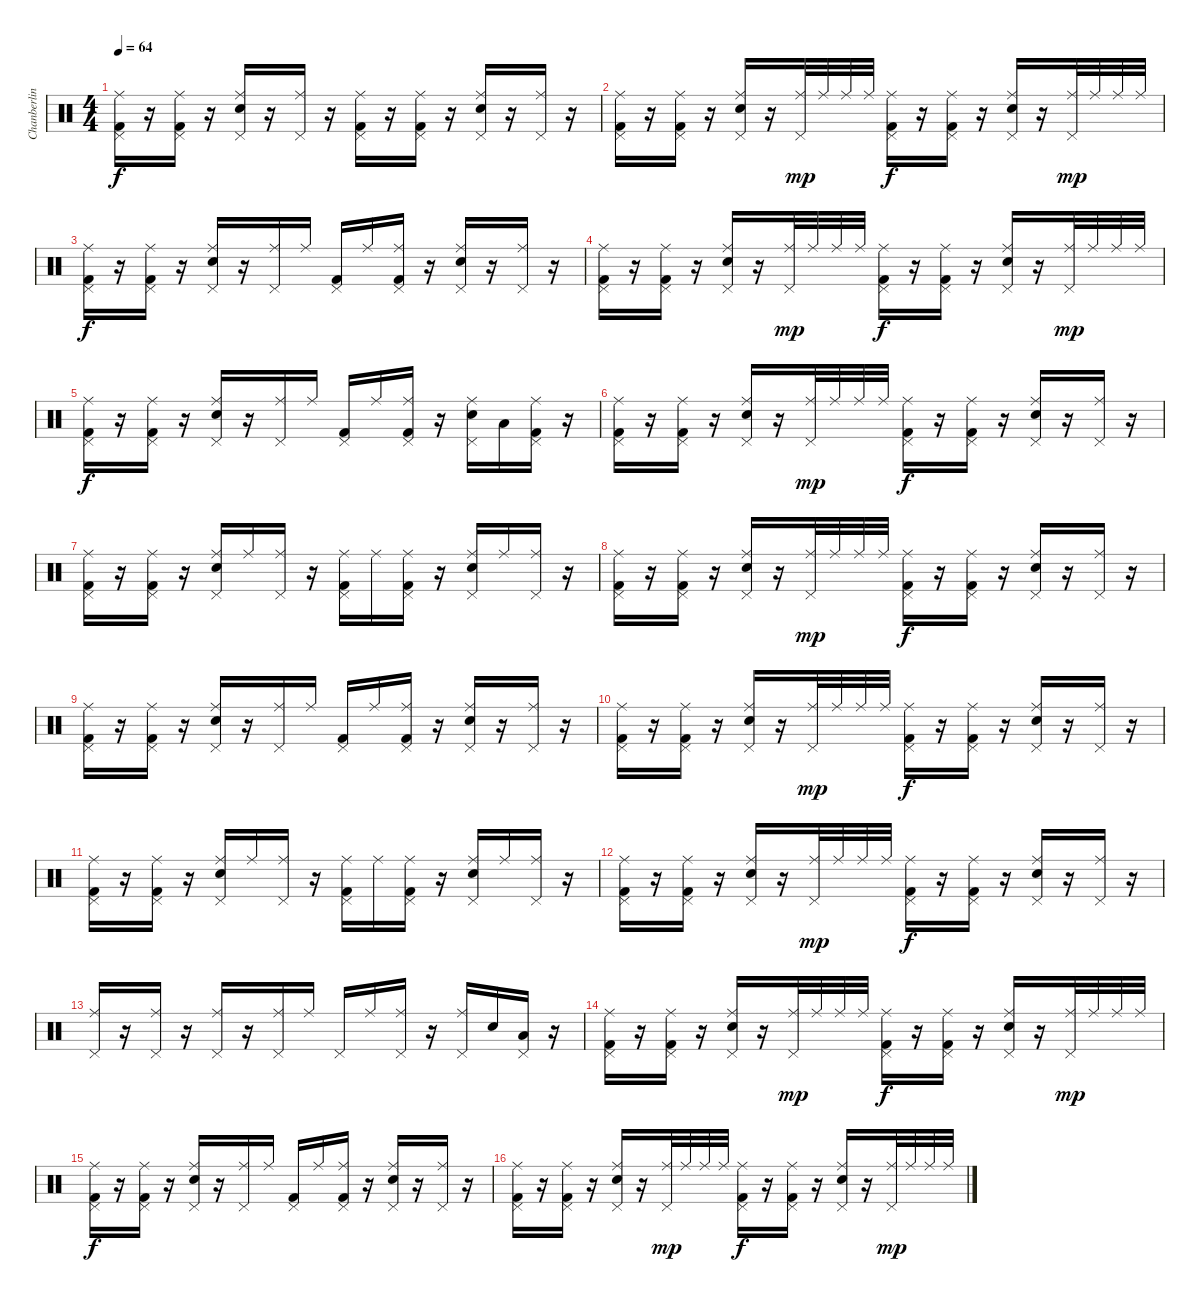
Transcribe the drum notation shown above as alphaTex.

\track ("Chanberlin" "Chanberlin") {instrument percussion}
\staff {score}
\articulation defaults
\ts (4 4)
\tempo 64
\clef neutral
\ks c
("Ride (middle)" "Pedal Hi-Hat (hit)" "Kick (hit) 2").16{dy f} r.16 ("Ride (middle)" "Pedal Hi-Hat (hit)" "Kick (hit) 2").16 r.16 ("Ride (middle)" "Pedal Hi-Hat (hit)" "Snare (hit) 2").16 r.16 ("Ride (middle)" "Pedal Hi-Hat (hit)").16 r.16 ("Ride (middle)" "Pedal Hi-Hat (hit)" "Kick (hit) 2").16 r.16 ("Ride (middle)" "Pedal Hi-Hat (hit)" "Kick (hit) 2").16 r.16 ("Ride (middle)" "Pedal Hi-Hat (hit)" "Snare (hit) 2").16 r.16 ("Ride (middle)" "Pedal Hi-Hat (hit)").16 r.16 |
("Ride (middle)" "Pedal Hi-Hat (hit)" "Kick (hit) 2").16 r.16 ("Ride (middle)" "Pedal Hi-Hat (hit)" "Kick (hit) 2").16 r.16 ("Ride (middle)" "Pedal Hi-Hat (hit)" "Snare (hit) 2").16 r.16 ("Ride (middle)" "Pedal Hi-Hat (hit)").32{dy mp} "Ride (middle)".32 "Ride (middle)".32 "Ride (middle)".32 ("Ride (middle)" "Pedal Hi-Hat (hit)" "Kick (hit) 2").16{dy f} r.16 ("Ride (middle)" "Pedal Hi-Hat (hit)" "Kick (hit) 2").16 r.16 ("Ride (middle)" "Pedal Hi-Hat (hit)" "Snare (hit) 2").16 r.16 ("Ride (middle)" "Pedal Hi-Hat (hit)").32{dy mp} "Ride (middle)".32 "Ride (middle)".32 "Ride (middle)".32 |
("Ride (middle)" "Pedal Hi-Hat (hit)" "Kick (hit) 2").16{dy f} r.16 ("Ride (middle)" "Pedal Hi-Hat (hit)" "Kick (hit) 2").16 r.16 ("Ride (middle)" "Pedal Hi-Hat (hit)" "Snare (hit) 2").16 r.16 ("Ride (middle)" "Pedal Hi-Hat (hit)").16 "Ride (middle)".16 ("Pedal Hi-Hat (hit)" "Kick (hit) 2").16 "Ride (middle)".16 ("Ride (middle)" "Pedal Hi-Hat (hit)" "Kick (hit) 2").16 r.16 ("Ride (middle)" "Pedal Hi-Hat (hit)" "Snare (hit) 2").16 r.16 ("Ride (middle)" "Pedal Hi-Hat (hit)").16 r.16 |
("Ride (middle)" "Pedal Hi-Hat (hit)" "Kick (hit) 2").16 r.16 ("Ride (middle)" "Pedal Hi-Hat (hit)" "Kick (hit) 2").16 r.16 ("Ride (middle)" "Pedal Hi-Hat (hit)" "Snare (hit) 2").16 r.16 ("Ride (middle)" "Pedal Hi-Hat (hit)").32{dy mp} "Ride (middle)".32 "Ride (middle)".32 "Ride (middle)".32 ("Ride (middle)" "Pedal Hi-Hat (hit)" "Kick (hit) 2").16{dy f} r.16 ("Ride (middle)" "Pedal Hi-Hat (hit)" "Kick (hit) 2").16 r.16 ("Ride (middle)" "Pedal Hi-Hat (hit)" "Snare (hit) 2").16 r.16 ("Ride (middle)" "Pedal Hi-Hat (hit)").32{dy mp} "Ride (middle)".32 "Ride (middle)".32 "Ride (middle)".32 |
("Ride (middle)" "Pedal Hi-Hat (hit)" "Kick (hit) 2").16{dy f} r.16 ("Ride (middle)" "Pedal Hi-Hat (hit)" "Kick (hit) 2").16 r.16 ("Ride (middle)" "Pedal Hi-Hat (hit)" "Snare (hit) 2").16 r.16 ("Ride (middle)" "Pedal Hi-Hat (hit)").16 "Ride (middle)".16 ("Pedal Hi-Hat (hit)" "Kick (hit) 2").16 "Ride (middle)".16 ("Ride (middle)" "Pedal Hi-Hat (hit)" "Kick (hit) 2").16 r.16 ("Ride (middle)" "Pedal Hi-Hat (hit)" "Snare (hit) 2").16 "Low Tom (hit)".16 ("Ride (middle)" "Pedal Hi-Hat (hit)" "Kick (hit) 2").16 r.16 |
("Ride (middle)" "Pedal Hi-Hat (hit)" "Kick (hit) 2").16 r.16 ("Ride (middle)" "Pedal Hi-Hat (hit)" "Kick (hit) 2").16 r.16 ("Ride (middle)" "Pedal Hi-Hat (hit)" "Snare (hit) 2").16 r.16 ("Ride (middle)" "Pedal Hi-Hat (hit)").32{dy mp} "Ride (middle)".32 "Ride (middle)".32 "Ride (middle)".32 ("Ride (middle)" "Pedal Hi-Hat (hit)" "Kick (hit) 2").16{dy f} r.16 ("Ride (middle)" "Pedal Hi-Hat (hit)" "Kick (hit) 2").16 r.16 ("Ride (middle)" "Pedal Hi-Hat (hit)" "Snare (hit) 2").16 r.16 ("Ride (middle)" "Pedal Hi-Hat (hit)").16 r.16 |
("Ride (middle)" "Pedal Hi-Hat (hit)" "Kick (hit) 2").16 r.16 ("Ride (middle)" "Pedal Hi-Hat (hit)" "Kick (hit) 2").16 r.16 ("Ride (middle)" "Pedal Hi-Hat (hit)" "Snare (hit) 2").16 "Ride (middle)".16 ("Ride (middle)" "Pedal Hi-Hat (hit)").16 r.16 ("Ride (middle)" "Pedal Hi-Hat (hit)" "Kick (hit) 2").16 "Ride (middle)".16 ("Ride (middle)" "Pedal Hi-Hat (hit)" "Kick (hit) 2").16 r.16 ("Ride (middle)" "Pedal Hi-Hat (hit)" "Snare (hit) 2").16 "Ride (middle)".16 ("Ride (middle)" "Pedal Hi-Hat (hit)").16 r.16 |
("Ride (middle)" "Pedal Hi-Hat (hit)" "Kick (hit) 2").16 r.16 ("Ride (middle)" "Pedal Hi-Hat (hit)" "Kick (hit) 2").16 r.16 ("Ride (middle)" "Pedal Hi-Hat (hit)" "Snare (hit) 2").16 r.16 ("Ride (middle)" "Pedal Hi-Hat (hit)").32{dy mp} "Ride (middle)".32 "Ride (middle)".32 "Ride (middle)".32 ("Ride (middle)" "Pedal Hi-Hat (hit)" "Kick (hit) 2").16{dy f} r.16 ("Ride (middle)" "Pedal Hi-Hat (hit)" "Kick (hit) 2").16 r.16 ("Ride (middle)" "Pedal Hi-Hat (hit)" "Snare (hit) 2").16 r.16 ("Ride (middle)" "Pedal Hi-Hat (hit)").16 r.16 |
("Ride (middle)" "Pedal Hi-Hat (hit)" "Kick (hit) 2").16 r.16 ("Ride (middle)" "Pedal Hi-Hat (hit)" "Kick (hit) 2").16 r.16 ("Ride (middle)" "Pedal Hi-Hat (hit)" "Snare (hit) 2").16 r.16 ("Ride (middle)" "Pedal Hi-Hat (hit)").16 "Ride (middle)".16 ("Pedal Hi-Hat (hit)" "Kick (hit) 2").16 "Ride (middle)".16 ("Ride (middle)" "Pedal Hi-Hat (hit)" "Kick (hit) 2").16 r.16 ("Ride (middle)" "Pedal Hi-Hat (hit)" "Snare (hit) 2").16 r.16 ("Ride (middle)" "Pedal Hi-Hat (hit)").16 r.16 |
("Ride (middle)" "Pedal Hi-Hat (hit)" "Kick (hit) 2").16 r.16 ("Ride (middle)" "Pedal Hi-Hat (hit)" "Kick (hit) 2").16 r.16 ("Ride (middle)" "Pedal Hi-Hat (hit)" "Snare (hit) 2").16 r.16 ("Ride (middle)" "Pedal Hi-Hat (hit)").32{dy mp} "Ride (middle)".32 "Ride (middle)".32 "Ride (middle)".32 ("Ride (middle)" "Pedal Hi-Hat (hit)" "Kick (hit) 2").16{dy f} r.16 ("Ride (middle)" "Pedal Hi-Hat (hit)" "Kick (hit) 2").16 r.16 ("Ride (middle)" "Pedal Hi-Hat (hit)" "Snare (hit) 2").16 r.16 ("Ride (middle)" "Pedal Hi-Hat (hit)").16 r.16 |
("Ride (middle)" "Pedal Hi-Hat (hit)" "Kick (hit) 2").16 r.16 ("Ride (middle)" "Pedal Hi-Hat (hit)" "Kick (hit) 2").16 r.16 ("Ride (middle)" "Pedal Hi-Hat (hit)" "Snare (hit) 2").16 "Ride (middle)".16 ("Ride (middle)" "Pedal Hi-Hat (hit)").16 r.16 ("Ride (middle)" "Pedal Hi-Hat (hit)" "Kick (hit) 2").16 "Ride (middle)".16 ("Ride (middle)" "Pedal Hi-Hat (hit)" "Kick (hit) 2").16 r.16 ("Ride (middle)" "Pedal Hi-Hat (hit)" "Snare (hit) 2").16 "Ride (middle)".16 ("Ride (middle)" "Pedal Hi-Hat (hit)").16 r.16 |
("Ride (middle)" "Pedal Hi-Hat (hit)" "Kick (hit) 2").16 r.16 ("Ride (middle)" "Pedal Hi-Hat (hit)" "Kick (hit) 2").16 r.16 ("Ride (middle)" "Pedal Hi-Hat (hit)" "Snare (hit) 2").16 r.16 ("Ride (middle)" "Pedal Hi-Hat (hit)").32{dy mp} "Ride (middle)".32 "Ride (middle)".32 "Ride (middle)".32 ("Ride (middle)" "Pedal Hi-Hat (hit)" "Kick (hit) 2").16{dy f} r.16 ("Ride (middle)" "Pedal Hi-Hat (hit)" "Kick (hit) 2").16 r.16 ("Ride (middle)" "Pedal Hi-Hat (hit)" "Snare (hit) 2").16 r.16 ("Ride (middle)" "Pedal Hi-Hat (hit)").16 r.16 |
("Ride (middle)" "Pedal Hi-Hat (hit)").16 r.16 ("Ride (middle)" "Pedal Hi-Hat (hit)").16 r.16 ("Ride (middle)" "Pedal Hi-Hat (hit)").16 r.16 ("Ride (middle)" "Pedal Hi-Hat (hit)").16 "Ride (middle)".16 "Pedal Hi-Hat (hit)".16 "Ride (middle)".16 ("Ride (middle)" "Pedal Hi-Hat (hit)").16 r.16 ("Ride (middle)" "Pedal Hi-Hat (hit)").16 "Snare (hit) 2".16 ("Pedal Hi-Hat (hit)" "Low Tom (hit)").16 r.16 |
("Ride (middle)" "Pedal Hi-Hat (hit)" "Kick (hit) 2").16 r.16 ("Ride (middle)" "Pedal Hi-Hat (hit)" "Kick (hit) 2").16 r.16 ("Ride (middle)" "Pedal Hi-Hat (hit)" "Snare (hit) 2").16 r.16 ("Ride (middle)" "Pedal Hi-Hat (hit)").32{dy mp} "Ride (middle)".32 "Ride (middle)".32 "Ride (middle)".32 ("Ride (middle)" "Pedal Hi-Hat (hit)" "Kick (hit) 2").16{dy f} r.16 ("Ride (middle)" "Pedal Hi-Hat (hit)" "Kick (hit) 2").16 r.16 ("Ride (middle)" "Pedal Hi-Hat (hit)" "Snare (hit) 2").16 r.16 ("Ride (middle)" "Pedal Hi-Hat (hit)").32{dy mp} "Ride (middle)".32 "Ride (middle)".32 "Ride (middle)".32 |
("Ride (middle)" "Pedal Hi-Hat (hit)" "Kick (hit) 2").16{dy f} r.16 ("Ride (middle)" "Pedal Hi-Hat (hit)" "Kick (hit) 2").16 r.16 ("Ride (middle)" "Pedal Hi-Hat (hit)" "Snare (hit) 2").16 r.16 ("Ride (middle)" "Pedal Hi-Hat (hit)").16 "Ride (middle)".16 ("Pedal Hi-Hat (hit)" "Kick (hit) 2").16 "Ride (middle)".16 ("Ride (middle)" "Pedal Hi-Hat (hit)" "Kick (hit) 2").16 r.16 ("Ride (middle)" "Pedal Hi-Hat (hit)" "Snare (hit) 2").16 r.16 ("Ride (middle)" "Pedal Hi-Hat (hit)").16 r.16 |
("Ride (middle)" "Pedal Hi-Hat (hit)" "Kick (hit) 2").16 r.16 ("Ride (middle)" "Pedal Hi-Hat (hit)" "Kick (hit) 2").16 r.16 ("Ride (middle)" "Pedal Hi-Hat (hit)" "Snare (hit) 2").16 r.16 ("Ride (middle)" "Pedal Hi-Hat (hit)").32{dy mp} "Ride (middle)".32 "Ride (middle)".32 "Ride (middle)".32 ("Ride (middle)" "Pedal Hi-Hat (hit)" "Kick (hit) 2").16{dy f} r.16 ("Ride (middle)" "Pedal Hi-Hat (hit)" "Kick (hit) 2").16 r.16 ("Ride (middle)" "Pedal Hi-Hat (hit)" "Snare (hit) 2").16 r.16 ("Ride (middle)" "Pedal Hi-Hat (hit)").32{dy mp} "Ride (middle)".32 "Ride (middle)".32 "Ride (middle)".32
